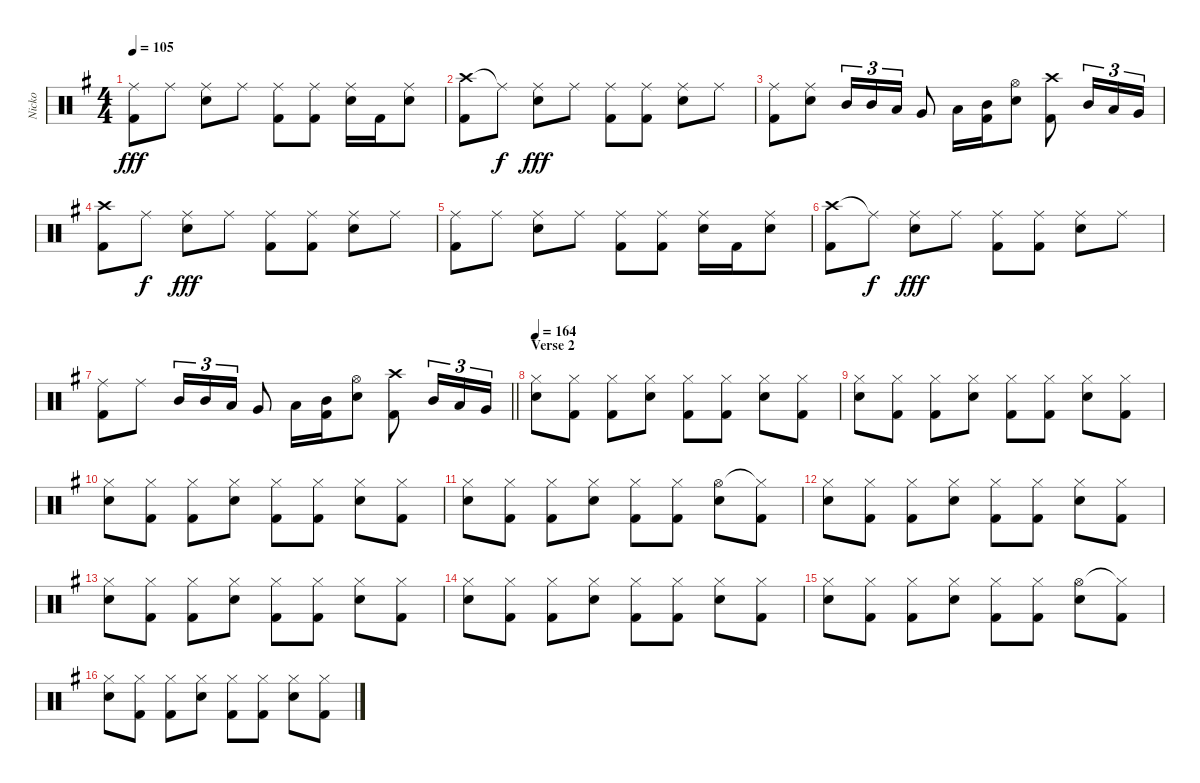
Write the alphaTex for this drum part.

\track ("Nicko" "Nicko") {instrument percussion}
\staff {score}
\articulation defaults
\ts (4 4)
\tempo 105
\clef neutral
\ks eminor
("Ride (middle)" "Kick (hit) 2").8{dy fff} "Ride (middle)".8 ("Ride (middle)" "Snare (hit) 2").8 "Ride (middle)".8 ("Ride (middle)" "Kick (hit) 2").8 ("Ride (middle)" "Kick (hit) 2").8 ("Ride (middle)" "Snare (hit) 2").16 "Kick (hit) 2".16 ("Ride (middle)" "Snare (hit) 2").8 |
("Crash high (hit)" "Kick (hit) 2").8 "Ride (middle)"{t}.8{dy f} ("Ride (middle)" "Snare (hit) 2").8{dy fff} "Ride (middle)".8 ("Ride (middle)" "Kick (hit) 2").8 ("Ride (middle)" "Kick (hit) 2").8 ("Ride (middle)" "Snare (hit) 2").8 "Ride (middle)".8 |
("Ride (middle)" "Kick (hit) 2").8 ("Ride (middle)" "Snare (hit) 2").8 "Mid Tom (hit)".16{tu (3 2)} "Mid Tom (hit)".16{tu (3 2)} "Low Tom (hit)".16{tu (3 2)} "Very Low Tom (hit)".8 "Low Tom (hit)".16 ("Mid Tom (hit)" "Kick (hit) 2").16 ("Hi-Hat (open)" "Snare (hit) 2").8 ("Crash high (hit)" "Kick (hit) 2").8 "Mid Tom (hit)".16{tu (3 2)} "Low Tom (hit)".16{tu (3 2)} "Very Low Tom (hit)".16{tu (3 2)} |
("Crash high (hit)" "Kick (hit) 2").8 "Ride (middle)".8{dy f} ("Ride (middle)" "Snare (hit) 2").8{dy fff} "Ride (middle)".8 ("Ride (middle)" "Kick (hit) 2").8 ("Ride (middle)" "Kick (hit) 2").8 ("Ride (middle)" "Snare (hit) 2").8 "Ride (middle)".8 |
("Ride (middle)" "Kick (hit) 2").8 "Ride (middle)".8 ("Ride (middle)" "Snare (hit) 2").8 "Ride (middle)".8 ("Ride (middle)" "Kick (hit) 2").8 ("Ride (middle)" "Kick (hit) 2").8 ("Ride (middle)" "Snare (hit) 2").16 "Kick (hit) 2".16 ("Ride (middle)" "Snare (hit) 2").8 |
("Crash high (hit)" "Kick (hit) 2").8 "Ride (middle)"{t}.8{dy f} ("Ride (middle)" "Snare (hit) 2").8{dy fff} "Ride (middle)".8 ("Ride (middle)" "Kick (hit) 2").8 ("Ride (middle)" "Kick (hit) 2").8 ("Ride (middle)" "Snare (hit) 2").8 "Ride (middle)".8 |
\barLineRight lightlight
("Ride (middle)" "Kick (hit) 2").8 "Ride (middle)".8 "Mid Tom (hit)".16{tu (3 2)} "Mid Tom (hit)".16{tu (3 2)} "Low Tom (hit)".16{tu (3 2)} "Very Low Tom (hit)".8 "Low Tom (hit)".16 ("Mid Tom (hit)" "Kick (hit) 2").16 ("Hi-Hat (open)" "Snare (hit) 2").8 ("Crash high (hit)" "Kick (hit) 2").8 "Mid Tom (hit)".16{tu (3 2)} "Low Tom (hit)".16{tu (3 2)} "Very Low Tom (hit)".16{tu (3 2)} |
\section ("" "Verse 2")
\tempo 164
("Hi-Hat (closed)" "Snare (hit) 2").8 ("Hi-Hat (closed)" "Kick (hit) 2").8 ("Hi-Hat (closed)" "Kick (hit) 2").8 ("Hi-Hat (closed)" "Snare (hit) 2").8 ("Hi-Hat (closed)" "Kick (hit) 2").8 ("Hi-Hat (closed)" "Kick (hit) 2").8 ("Hi-Hat (closed)" "Snare (hit) 2").8 ("Hi-Hat (closed)" "Kick (hit) 2").8 |
("Hi-Hat (closed)" "Snare (hit) 2").8 ("Hi-Hat (closed)" "Kick (hit) 2").8 ("Hi-Hat (closed)" "Kick (hit) 2").8 ("Hi-Hat (closed)" "Snare (hit) 2").8 ("Hi-Hat (closed)" "Kick (hit) 2").8 ("Hi-Hat (closed)" "Kick (hit) 2").8 ("Hi-Hat (closed)" "Snare (hit) 2").8 ("Hi-Hat (closed)" "Kick (hit) 2").8 |
("Hi-Hat (closed)" "Snare (hit) 2").8 ("Hi-Hat (closed)" "Kick (hit) 2").8 ("Hi-Hat (closed)" "Kick (hit) 2").8 ("Hi-Hat (closed)" "Snare (hit) 2").8 ("Hi-Hat (closed)" "Kick (hit) 2").8 ("Hi-Hat (closed)" "Kick (hit) 2").8 ("Hi-Hat (closed)" "Snare (hit) 2").8 ("Hi-Hat (closed)" "Kick (hit) 2").8 |
("Hi-Hat (closed)" "Snare (hit) 2").8 ("Hi-Hat (closed)" "Kick (hit) 2").8 ("Hi-Hat (closed)" "Kick (hit) 2").8 ("Hi-Hat (closed)" "Snare (hit) 2").8 ("Hi-Hat (closed)" "Kick (hit) 2").8 ("Hi-Hat (closed)" "Kick (hit) 2").8 ("Hi-Hat (open)" "Snare (hit) 2").8 ("Hi-Hat (closed)"{t} "Kick (hit) 2").8 |
("Hi-Hat (closed)" "Snare (hit) 2").8 ("Hi-Hat (closed)" "Kick (hit) 2").8 ("Hi-Hat (closed)" "Kick (hit) 2").8 ("Hi-Hat (closed)" "Snare (hit) 2").8 ("Hi-Hat (closed)" "Kick (hit) 2").8 ("Hi-Hat (closed)" "Kick (hit) 2").8 ("Hi-Hat (closed)" "Snare (hit) 2").8 ("Hi-Hat (closed)" "Kick (hit) 2").8 |
("Hi-Hat (closed)" "Snare (hit) 2").8 ("Hi-Hat (closed)" "Kick (hit) 2").8 ("Hi-Hat (closed)" "Kick (hit) 2").8 ("Hi-Hat (closed)" "Snare (hit) 2").8 ("Hi-Hat (closed)" "Kick (hit) 2").8 ("Hi-Hat (closed)" "Kick (hit) 2").8 ("Hi-Hat (closed)" "Snare (hit) 2").8 ("Hi-Hat (closed)" "Kick (hit) 2").8 |
("Hi-Hat (closed)" "Snare (hit) 2").8 ("Hi-Hat (closed)" "Kick (hit) 2").8 ("Hi-Hat (closed)" "Kick (hit) 2").8 ("Hi-Hat (closed)" "Snare (hit) 2").8 ("Hi-Hat (closed)" "Kick (hit) 2").8 ("Hi-Hat (closed)" "Kick (hit) 2").8 ("Hi-Hat (closed)" "Snare (hit) 2").8 ("Hi-Hat (closed)" "Kick (hit) 2").8 |
("Hi-Hat (closed)" "Snare (hit) 2").8 ("Hi-Hat (closed)" "Kick (hit) 2").8 ("Hi-Hat (closed)" "Kick (hit) 2").8 ("Hi-Hat (closed)" "Snare (hit) 2").8 ("Hi-Hat (closed)" "Kick (hit) 2").8 ("Hi-Hat (closed)" "Kick (hit) 2").8 ("Hi-Hat (open)" "Snare (hit) 2").8 ("Hi-Hat (closed)"{t} "Kick (hit) 2").8 |
("Hi-Hat (closed)" "Snare (hit) 2").8 ("Hi-Hat (closed)" "Kick (hit) 2").8 ("Hi-Hat (closed)" "Kick (hit) 2").8 ("Hi-Hat (closed)" "Snare (hit) 2").8 ("Hi-Hat (closed)" "Kick (hit) 2").8 ("Hi-Hat (closed)" "Kick (hit) 2").8 ("Hi-Hat (closed)" "Snare (hit) 2").8 ("Hi-Hat (closed)" "Kick (hit) 2").8
